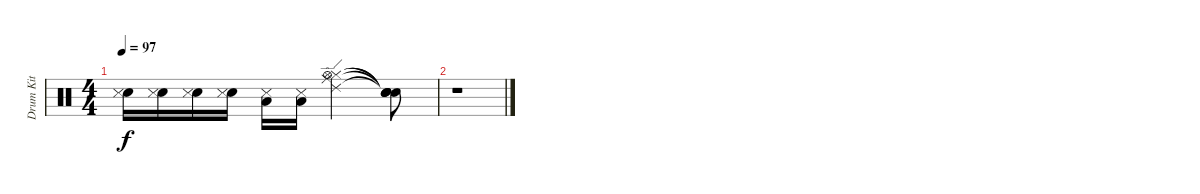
\track ("Drum Kit" "Drum Kit") {instrument percussion}
\staff {score}
\articulation defaults
\ts (4 4)
\tempo 97
\clef neutral
\ks c
("Electric Snare (hit)" "Snare (side stick) 3").16{dy f} ("Electric Snare (hit)" "Snare (side stick) 3").16 ("Electric Snare (hit)" "Snare (side stick) 3").16 ("Electric Snare (hit)" "Snare (side stick) 3").16 ("Snare (side stick) 3" "Low Floor Tom (hit)").16 ("Snare (side stick) 3" "Low Floor Tom (hit)").16 ("Hi-Hat (closed)" "Hi-Hat (open)" "Ride (middle)" "Ride (edge) 2").2 ("Snare (hit)"{t} "Snare (hit)"{t} "Snare (hit)"{t} "Snare (hit)"{t}).8 |
r.1
